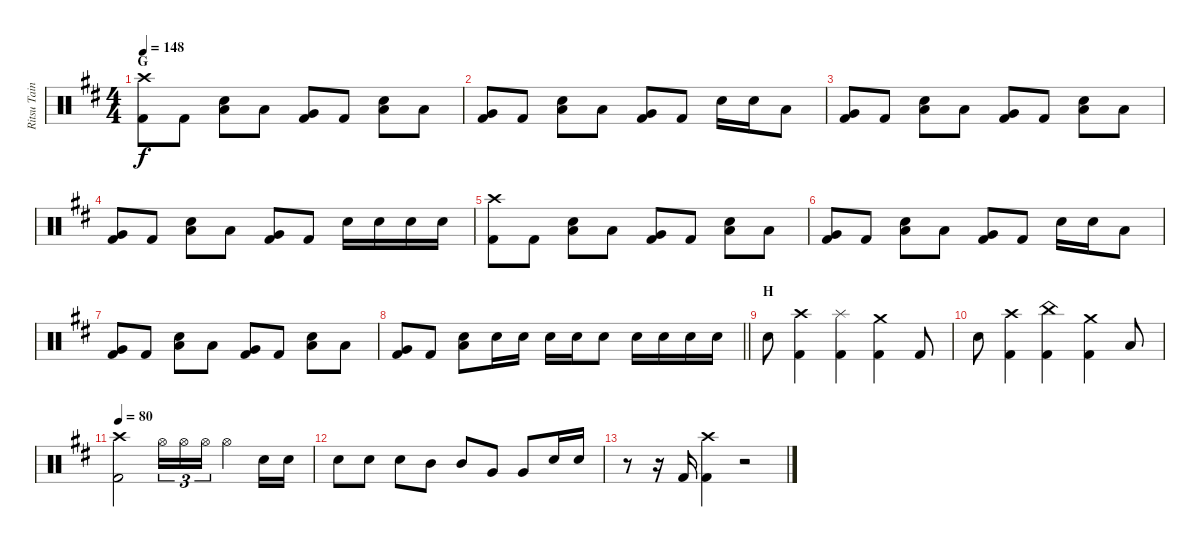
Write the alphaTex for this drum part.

\track ("Ritsu Tainaka" "Ritsu Tain") {instrument percussion}
\staff {score}
\articulation defaults
\ts (4 4)
\section ("" "G")
\tempo 148
\clef neutral
\ks d
("Crash high (hit)" "Kick (hit) 2").8{dy f} "Kick (hit) 2".8 ("Snare (hit) 2" "Low Floor Tom (hit)").8 "Low Tom (hit)".8 ("Very Low Tom (hit)" "Kick (hit) 2").8 "Kick (hit) 2".8 ("Snare (hit) 2" "Low Floor Tom (hit)").8 "Low Tom (hit)".8 |
("Very Low Tom (hit)" "Kick (hit) 2").8 "Kick (hit) 2".8 ("Snare (hit) 2" "Low Floor Tom (hit)").8 "Low Tom (hit)".8 ("Very Low Tom (hit)" "Kick (hit) 2").8 "Kick (hit) 2".8 "Snare (hit) 2".16 "Snare (hit) 2".16 "Low Tom (hit)".8 |
("Very Low Tom (hit)" "Kick (hit) 2").8 "Kick (hit) 2".8 ("Snare (hit) 2" "Low Floor Tom (hit)").8 "Low Tom (hit)".8 ("Very Low Tom (hit)" "Kick (hit) 2").8 "Kick (hit) 2".8 ("Snare (hit) 2" "Low Floor Tom (hit)").8 "Low Tom (hit)".8 |
("Very Low Tom (hit)" "Kick (hit) 2").8 "Kick (hit) 2".8 ("Snare (hit) 2" "Low Floor Tom (hit)").8 "Low Tom (hit)".8 ("Very Low Tom (hit)" "Kick (hit) 2").8 "Kick (hit) 2".8 "Snare (hit) 2".16 "Snare (hit) 2".16 "Snare (hit) 2".16 "Snare (hit) 2".16 |
("Crash high (hit)" "Kick (hit) 2").8 "Kick (hit) 2".8 ("Snare (hit) 2" "Low Floor Tom (hit)").8 "Low Tom (hit)".8 ("Very Low Tom (hit)" "Kick (hit) 2").8 "Kick (hit) 2".8 ("Snare (hit) 2" "Low Floor Tom (hit)").8 "Low Tom (hit)".8 |
("Very Low Tom (hit)" "Kick (hit) 2").8 "Kick (hit) 2".8 ("Snare (hit) 2" "Low Floor Tom (hit)").8 "Low Tom (hit)".8 ("Very Low Tom (hit)" "Kick (hit) 2").8 "Kick (hit) 2".8 "Snare (hit) 2".16 "Snare (hit) 2".16 "Low Tom (hit)".8 |
("Very Low Tom (hit)" "Kick (hit) 2").8 "Kick (hit) 2".8 ("Snare (hit) 2" "Low Floor Tom (hit)").8 "Low Tom (hit)".8 ("Very Low Tom (hit)" "Kick (hit) 2").8 "Kick (hit) 2".8 ("Snare (hit) 2" "Low Floor Tom (hit)").8 "Low Tom (hit)".8 |
\barLineRight lightlight
("Very Low Tom (hit)" "Kick (hit) 2").8 "Kick (hit) 2".8 ("Snare (hit) 2" "Low Floor Tom (hit)").8 "Snare (hit) 2".16 "Snare (hit) 2".16 "Snare (hit) 2".16 "Snare (hit) 2".16 "Snare (hit) 2".8 "Snare (hit) 2".16 "Snare (hit) 2".16 "Snare (hit) 2".16 "Snare (hit) 2".16 |
\section ("" "H")
"Snare (hit) 2".8 ("Crash high (hit)" "Kick (hit) 2").4 ("Splash (hit)" "Kick (hit) 2").4 ("Crash medium (hit)" "Kick (hit) 2").4 "Kick (hit) 2".8 |
"Snare (hit) 2".8 ("Crash high (hit)" "Kick (hit) 2").4 ("China (hit)" "Kick (hit) 2").4 ("Crash medium (hit)" "Kick (hit) 2").4 "Low Tom (hit)".8 |
\tempo 80
("Crash high (hit)" "Kick (hit) 2").2 "Hi-Hat (open)".16{tu (3 2)} "Hi-Hat (open)".16{tu (3 2)} "Hi-Hat (open)".16{tu (3 2)} "Hi-Hat (open)".4 "Snare (hit) 2".16 "Snare (hit) 2".16 |
"Snare (hit) 2".8 "Snare (hit) 2".8 "Snare (hit) 2".8 "Mid Tom (hit)".8 "Mid Tom (hit)".8 "Very Low Tom (hit)".8 "Very Low Tom (hit)".8 "Snare (hit) 2".16 "Snare (hit) 2".16 |
r.8 r.16 "Kick (hit) 2".16 ("Crash high (hit)" "Kick (hit) 2").4 r.2
